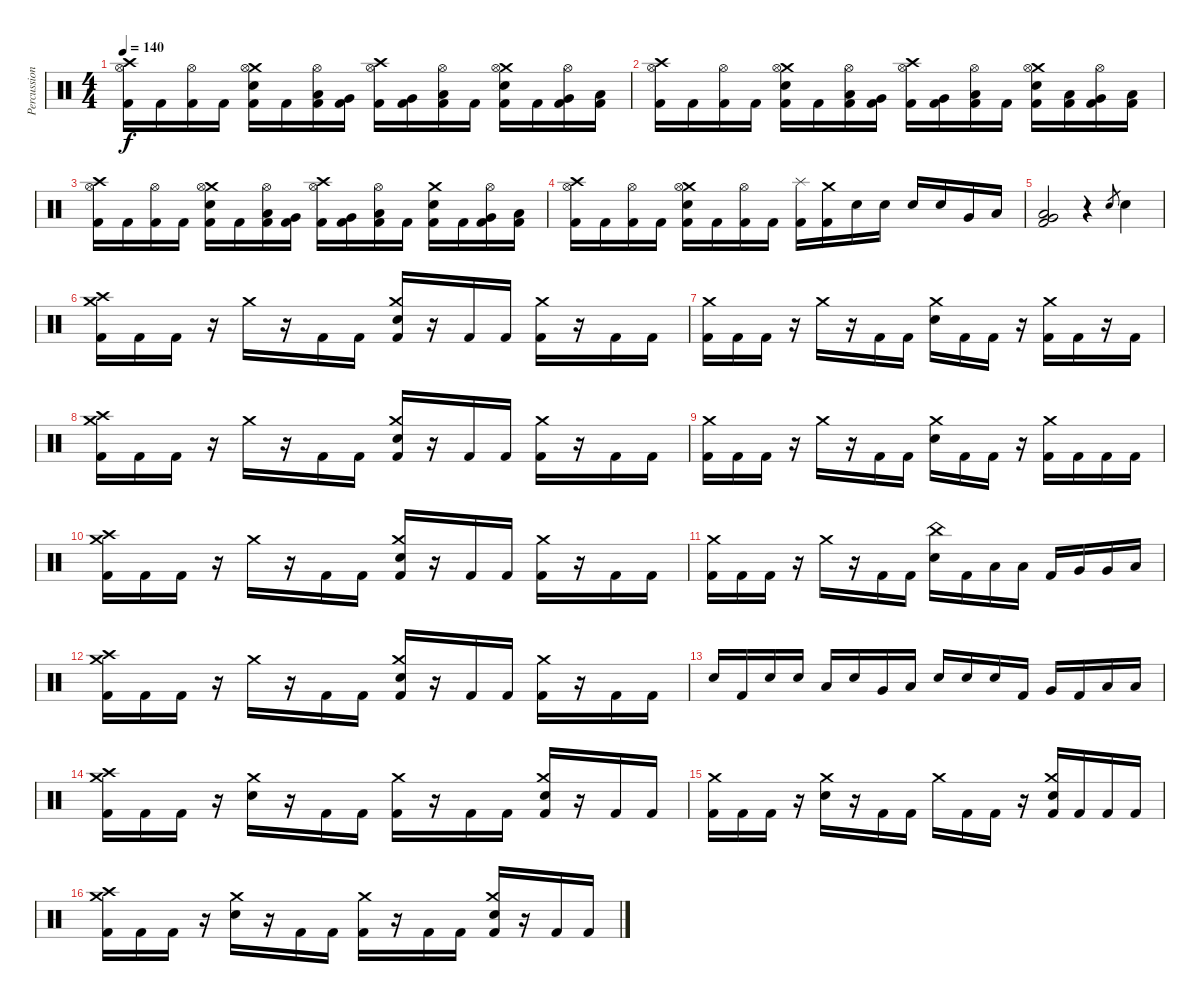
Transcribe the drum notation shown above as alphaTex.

\track ("Percussion" "Percussion") {instrument percussion}
\staff {score}
\articulation defaults
\ts (4 4)
\tempo 140
\clef neutral
\ks c
("Crash high (hit)" "Hi-Hat (open)" "Kick (hit) 2").16{dy f} "Kick (hit) 2".16 ("Hi-Hat (open)" "Kick (hit) 2").16 "Kick (hit) 2".16 ("Crash medium (hit)" "Hi-Hat (open)" "Electric Snare (hit)" "Kick (hit) 2").16 "Kick (hit) 2".16 ("Hi-Hat (open)" "Low Tom (hit)" "Kick (hit) 2").16 ("Very Low Tom (hit)" "Kick (hit) 2").16 ("Crash high (hit)" "Hi-Hat (open)" "Kick (hit) 2").16 ("Very Low Tom (hit)" "Kick (hit) 2").16 ("Hi-Hat (open)" "Low Floor Tom (hit)" "Kick (hit) 2").16 "Kick (hit) 2".16 ("Crash medium (hit)" "Hi-Hat (open)" "Electric Snare (hit)" "Kick (hit) 2").16 "Kick (hit) 2".16 ("Hi-Hat (open)" "Very Low Tom (hit)" "Kick (hit) 2").16 ("Low Floor Tom (hit)" "Kick (hit) 2").16 |
("Crash high (hit)" "Hi-Hat (open)" "Kick (hit) 2").16 "Kick (hit) 2".16 ("Hi-Hat (open)" "Kick (hit) 2").16 "Kick (hit) 2".16 ("Crash medium (hit)" "Hi-Hat (open)" "Electric Snare (hit)" "Kick (hit) 2").16 "Kick (hit) 2".16 ("Hi-Hat (open)" "Low Tom (hit)" "Kick (hit) 2").16 ("Very Low Tom (hit)" "Kick (hit) 2").16 ("Crash high (hit)" "Hi-Hat (open)" "Kick (hit) 2").16 ("Very Low Tom (hit)" "Kick (hit) 2").16 ("Hi-Hat (open)" "Low Floor Tom (hit)" "Kick (hit) 2").16 "Kick (hit) 2".16 ("Crash medium (hit)" "Hi-Hat (open)" "Electric Snare (hit)" "Kick (hit) 2").16 ("Low Tom (hit)" "Kick (hit) 2").16 ("Hi-Hat (open)" "Very Low Tom (hit)" "Kick (hit) 2").16 ("Low Floor Tom (hit)" "Kick (hit) 2").16 |
("Crash high (hit)" "Hi-Hat (open)" "Kick (hit) 2").16 "Kick (hit) 2".16 ("Hi-Hat (open)" "Kick (hit) 2").16 "Kick (hit) 2".16 ("Crash medium (hit)" "Hi-Hat (open)" "Electric Snare (hit)" "Kick (hit) 2").16 "Kick (hit) 2".16 ("Hi-Hat (open)" "Low Tom (hit)" "Kick (hit) 2").16 ("Very Low Tom (hit)" "Kick (hit) 2").16 ("Crash high (hit)" "Hi-Hat (open)" "Kick (hit) 2").16 ("Very Low Tom (hit)" "Kick (hit) 2").16 ("Hi-Hat (open)" "Low Floor Tom (hit)" "Kick (hit) 2").16 "Kick (hit) 2".16 ("Crash medium (hit)" "Electric Snare (hit)" "Kick (hit) 2").16 "Kick (hit) 2".16 ("Hi-Hat (open)" "Very Low Tom (hit)" "Kick (hit) 2").16 ("Low Floor Tom (hit)" "Kick (hit) 2").16 |
("Crash high (hit)" "Hi-Hat (open)" "Kick (hit) 2").16 "Kick (hit) 2".16 ("Hi-Hat (open)" "Kick (hit) 2").16 "Kick (hit) 2".16 ("Crash medium (hit)" "Hi-Hat (open)" "Electric Snare (hit)" "Kick (hit) 2").16 "Kick (hit) 2".16 ("Hi-Hat (open)" "Kick (hit) 2").16 "Kick (hit) 2".16 ("Splash (hit)" "Kick (hit) 2").16 ("Crash medium (hit)" "Kick (hit) 2").16 "Electric Snare (hit)".16 "Electric Snare (hit)".16 "Electric Snare (hit)".16 "Electric Snare (hit)".16 "Very Low Tom (hit)".16 "Low Floor Tom (hit)".16 |
("Very Low Tom (hit)" "Low Floor Tom (hit)" "Kick (hit) 2").2 r.4 "Electric Snare (hit)".8{gr} "Electric Snare (hit)".4 |
("Crash high (hit)" "Crash medium (hit)" "Kick (hit) 2").16 "Kick (hit) 2".16 "Kick (hit) 2".16 r.16 "Crash medium (hit)".16 r.16 "Kick (hit) 2".16 "Kick (hit) 2".16 ("Crash medium (hit)" "Electric Snare (hit)" "Kick (hit) 2").16 r.16 "Kick (hit) 2".16 "Kick (hit) 2".16 ("Crash medium (hit)" "Kick (hit) 2").16 r.16 "Kick (hit) 2".16 "Kick (hit) 2".16 |
("Crash medium (hit)" "Kick (hit) 2").16 "Kick (hit) 2".16 "Kick (hit) 2".16 r.16 "Crash medium (hit)".16 r.16 "Kick (hit) 2".16 "Kick (hit) 2".16 ("Crash medium (hit)" "Electric Snare (hit)").16 "Kick (hit) 2".16 "Kick (hit) 2".16 r.16 ("Crash medium (hit)" "Kick (hit) 2").16 "Kick (hit) 2".16 r.16 "Kick (hit) 2".16 |
("Crash high (hit)" "Crash medium (hit)" "Kick (hit) 2").16 "Kick (hit) 2".16 "Kick (hit) 2".16 r.16 "Crash medium (hit)".16 r.16 "Kick (hit) 2".16 "Kick (hit) 2".16 ("Crash medium (hit)" "Electric Snare (hit)" "Kick (hit) 2").16 r.16 "Kick (hit) 2".16 "Kick (hit) 2".16 ("Crash medium (hit)" "Kick (hit) 2").16 r.16 "Kick (hit) 2".16 "Kick (hit) 2".16 |
("Crash medium (hit)" "Kick (hit) 2").16 "Kick (hit) 2".16 "Kick (hit) 2".16 r.16 "Crash medium (hit)".16 r.16 "Kick (hit) 2".16 "Kick (hit) 2".16 ("Crash medium (hit)" "Electric Snare (hit)").16 "Kick (hit) 2".16 "Kick (hit) 2".16 r.16 ("Crash medium (hit)" "Kick (hit) 2").16 "Kick (hit) 2".16 "Kick (hit) 2".16 "Kick (hit) 2".16 |
("Crash high (hit)" "Crash medium (hit)" "Kick (hit) 2").16 "Kick (hit) 2".16 "Kick (hit) 2".16 r.16 "Crash medium (hit)".16 r.16 "Kick (hit) 2".16 "Kick (hit) 2".16 ("Crash medium (hit)" "Electric Snare (hit)" "Kick (hit) 2").16 r.16 "Kick (hit) 2".16 "Kick (hit) 2".16 ("Crash medium (hit)" "Kick (hit) 2").16 r.16 "Kick (hit) 2".16 "Kick (hit) 2".16 |
("Crash medium (hit)" "Kick (hit) 2").16 "Kick (hit) 2".16 "Kick (hit) 2".16 r.16 "Crash medium (hit)".16 r.16 "Kick (hit) 2".16 "Kick (hit) 2".16 ("China (hit)" "Electric Snare (hit)").16 "Kick (hit) 2".16 "Low Tom (hit)".16 "Low Tom (hit)".16 "Kick (hit) 2".16 "Very Low Tom (hit)".16 "Very Low Tom (hit)".16 "Low Floor Tom (hit)".16 |
("Crash high (hit)" "Crash medium (hit)" "Kick (hit) 2").16 "Kick (hit) 2".16 "Kick (hit) 2".16 r.16 "Crash medium (hit)".16 r.16 "Kick (hit) 2".16 "Kick (hit) 2".16 ("Crash medium (hit)" "Electric Snare (hit)" "Kick (hit) 2").16 r.16 "Kick (hit) 2".16 "Kick (hit) 2".16 ("Crash medium (hit)" "Kick (hit) 2").16 r.16 "Kick (hit) 2".16 "Kick (hit) 2".16 |
"Electric Snare (hit)".16 "Kick (hit) 2".16 "Electric Snare (hit)".16 "Electric Snare (hit)".16 "Low Tom (hit)".16 "Electric Snare (hit)".16 "Very Low Tom (hit)".16 "Low Floor Tom (hit)".16 "Electric Snare (hit)".16 "Electric Snare (hit)".16 "Electric Snare (hit)".16 "Kick (hit) 2".16 "Very Low Tom (hit)".16 "Kick (hit) 2".16 "Low Floor Tom (hit)".16 "Low Floor Tom (hit)".16 |
("Crash high (hit)" "Crash medium (hit)" "Kick (hit) 2").16 "Kick (hit) 2".16 "Kick (hit) 2".16 r.16 ("Crash medium (hit)" "Electric Snare (hit)").16 r.16 "Kick (hit) 2".16 "Kick (hit) 2".16 ("Crash medium (hit)" "Kick (hit) 2").16 r.16 "Kick (hit) 2".16 "Kick (hit) 2".16 ("Crash medium (hit)" "Electric Snare (hit)" "Kick (hit) 2").16 r.16 "Kick (hit) 2".16 "Kick (hit) 2".16 |
("Crash medium (hit)" "Kick (hit) 2").16 "Kick (hit) 2".16 "Kick (hit) 2".16 r.16 ("Crash medium (hit)" "Electric Snare (hit)").16 r.16 "Kick (hit) 2".16 "Kick (hit) 2".16 "Crash medium (hit)".16 "Kick (hit) 2".16 "Kick (hit) 2".16 r.16 ("Crash medium (hit)" "Electric Snare (hit)" "Kick (hit) 2").16 "Kick (hit) 2".16 "Kick (hit) 2".16 "Kick (hit) 2".16 |
("Crash high (hit)" "Crash medium (hit)" "Kick (hit) 2").16 "Kick (hit) 2".16 "Kick (hit) 2".16 r.16 ("Crash medium (hit)" "Electric Snare (hit)").16 r.16 "Kick (hit) 2".16 "Kick (hit) 2".16 ("Crash medium (hit)" "Kick (hit) 2").16 r.16 "Kick (hit) 2".16 "Kick (hit) 2".16 ("Crash medium (hit)" "Electric Snare (hit)" "Kick (hit) 2").16 r.16 "Kick (hit) 2".16 "Kick (hit) 2".16
